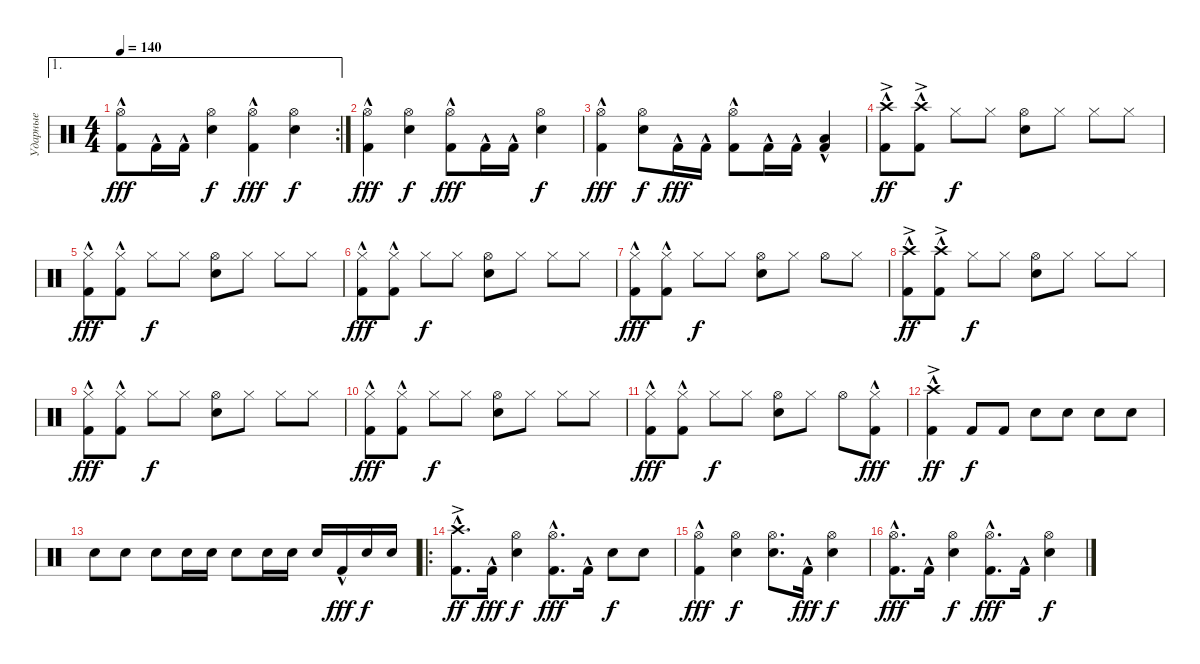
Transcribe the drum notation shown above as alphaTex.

\track ("Ударные" "Ударные") {instrument percussion}
\staff {score}
\articulation defaults
\ae 1
\rc 2
\ts (4 4)
\tempo 140
\clef neutral
\ks c
("Kick (hit) 2"{hac} "Hi-Hat (open)").8{dy fff} "Kick (hit) 2"{hac}.16 "Kick (hit) 2"{hac}.16 ("Snare (hit) 2" "Hi-Hat (open)").4{dy f} ("Kick (hit) 2"{hac} "Hi-Hat (open)").4{dy fff} ("Snare (hit) 2" "Hi-Hat (open)").4{dy f} |
("Kick (hit) 2"{hac} "Hi-Hat (open)").4{dy fff} ("Snare (hit) 2" "Hi-Hat (open)").4{dy f} ("Kick (hit) 2"{hac} "Hi-Hat (open)").8{dy fff} "Kick (hit) 2"{hac}.16 "Kick (hit) 2"{hac}.16 ("Snare (hit) 2" "Hi-Hat (open)").4{dy f} |
("Kick (hit) 2"{hac} "Hi-Hat (open)").4{dy fff} ("Snare (hit) 2" "Hi-Hat (open)").8{dy f} "Kick (hit) 2"{hac}.16{dy fff} "Kick (hit) 2"{hac}.16 ("Kick (hit) 2"{hac} "Hi-Hat (open)").8 "Kick (hit) 2"{hac}.16 "Kick (hit) 2"{hac}.16 ("Kick (hit) 2"{hac} "Low Floor Tom (hit)"{hac}).4 |
("Kick (hit) 2"{hac} "Crash high (hit)"{ac}).8{dy ff} ("Kick (hit) 2"{hac} "Crash high (hit)"{ac}).8 "Hi-Hat (closed)".8{dy f} "Hi-Hat (closed)".8 ("Snare (hit) 2" "Hi-Hat (open)").8 "Hi-Hat (closed)".8 "Hi-Hat (closed)".8 "Hi-Hat (closed)".8 |
("Kick (hit) 2"{hac} "Hi-Hat (closed)").8{dy fff} ("Kick (hit) 2"{hac} "Hi-Hat (closed)").8 "Hi-Hat (closed)".8{dy f} "Hi-Hat (closed)".8 ("Snare (hit) 2" "Hi-Hat (open)").8 "Hi-Hat (closed)".8 "Hi-Hat (closed)".8 "Hi-Hat (closed)".8 |
("Kick (hit) 2"{hac} "Hi-Hat (closed)").8{dy fff} ("Kick (hit) 2"{hac} "Hi-Hat (closed)").8 "Hi-Hat (closed)".8{dy f} "Hi-Hat (closed)".8 ("Snare (hit) 2" "Hi-Hat (open)").8 "Hi-Hat (closed)".8 "Hi-Hat (closed)".8 "Hi-Hat (closed)".8 |
("Kick (hit) 2"{hac} "Hi-Hat (closed)").8{dy fff} ("Kick (hit) 2"{hac} "Hi-Hat (closed)").8 "Hi-Hat (closed)".8{dy f} "Hi-Hat (closed)".8 ("Snare (hit) 2" "Hi-Hat (open)").8 "Hi-Hat (closed)".8 "Hi-Hat (open)".8 "Hi-Hat (closed)".8 |
("Kick (hit) 2"{hac} "Crash high (hit)"{ac}).8{dy ff} ("Kick (hit) 2"{hac} "Crash high (hit)"{ac}).8 "Hi-Hat (closed)".8{dy f} "Hi-Hat (closed)".8 ("Snare (hit) 2" "Hi-Hat (open)").8 "Hi-Hat (closed)".8 "Hi-Hat (closed)".8 "Hi-Hat (closed)".8 |
("Kick (hit) 2"{hac} "Hi-Hat (closed)").8{dy fff} ("Kick (hit) 2"{hac} "Hi-Hat (closed)").8 "Hi-Hat (closed)".8{dy f} "Hi-Hat (closed)".8 ("Snare (hit) 2" "Hi-Hat (open)").8 "Hi-Hat (closed)".8 "Hi-Hat (closed)".8 "Hi-Hat (closed)".8 |
("Kick (hit) 2"{hac} "Hi-Hat (closed)").8{dy fff} ("Kick (hit) 2"{hac} "Hi-Hat (closed)").8 "Hi-Hat (closed)".8{dy f} "Hi-Hat (closed)".8 ("Snare (hit) 2" "Hi-Hat (open)").8 "Hi-Hat (closed)".8 "Hi-Hat (closed)".8 "Hi-Hat (closed)".8 |
("Kick (hit) 2"{hac} "Hi-Hat (closed)").8{dy fff} ("Kick (hit) 2"{hac} "Hi-Hat (closed)").8 "Hi-Hat (closed)".8{dy f} "Hi-Hat (closed)".8 ("Snare (hit) 2" "Hi-Hat (open)").8 "Hi-Hat (closed)".8 "Hi-Hat (open)".8 ("Kick (hit) 2"{hac} "Hi-Hat (closed)").8{dy fff} |
("Kick (hit) 2"{hac} "Crash high (hit)"{ac}).4{dy ff} "Kick (hit) 2".8{dy f} "Kick (hit) 2".8 "Snare (hit) 2".8 "Snare (hit) 2".8 "Snare (hit) 2".8 "Snare (hit) 2".8 |
"Snare (hit) 2".8 "Snare (hit) 2".8 "Snare (hit) 2".8 "Snare (hit) 2".16 "Snare (hit) 2".16 "Snare (hit) 2".8 "Snare (hit) 2".16 "Snare (hit) 2".16 "Snare (hit) 2".16 "Kick (hit) 2"{hac}.16{dy fff} "Snare (hit) 2".16{dy f} "Snare (hit) 2".16 |
\ro
("Kick (hit) 2"{hac} "Crash high (hit)"{ac}).8{d dy ff} "Kick (hit) 2"{hac}.16{dy fff} ("Snare (hit) 2" "Hi-Hat (open)").4{dy f} ("Kick (hit) 2"{hac} "Hi-Hat (open)").8{d dy fff} "Kick (hit) 2"{hac}.16 "Snare (hit) 2".8{dy f} "Snare (hit) 2".8 |
("Kick (hit) 2"{hac} "Hi-Hat (open)").4{dy fff} ("Snare (hit) 2" "Hi-Hat (open)").4{dy f} ("Snare (hit) 2" "Hi-Hat (open)").8{d} "Kick (hit) 2"{hac}.16{dy fff} ("Snare (hit) 2" "Hi-Hat (open)").4{dy f} |
("Kick (hit) 2"{hac} "Hi-Hat (open)").8{d dy fff} "Kick (hit) 2"{hac}.16 ("Snare (hit) 2" "Hi-Hat (open)").4{dy f} ("Kick (hit) 2"{hac} "Hi-Hat (open)").8{d dy fff} "Kick (hit) 2"{hac}.16 ("Snare (hit) 2" "Hi-Hat (open)").4{dy f}
